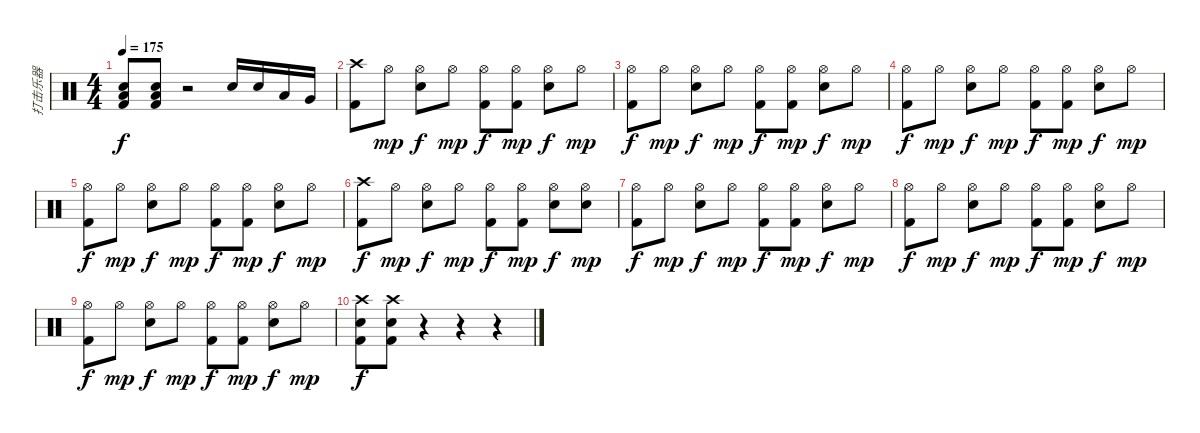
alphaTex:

\track ("打击乐器" "打击乐器") {instrument percussion}
\staff {score}
\articulation defaults
\ts (4 4)
\tempo 175
\clef neutral
\ks c
("Low Floor Tom (hit)" "Electric Snare (hit)" "Kick (hit) 2").8{dy f} ("Low Floor Tom (hit)" "Electric Snare (hit)" "Kick (hit) 2").8 r.2 "Electric Snare (hit)".16 "Electric Snare (hit)".16 "Low Tom (hit)".16 "Very Low Tom (hit)".16 |
("Crash high (hit)" "Kick (hit) 2").8 "Hi-Hat (open)".8{dy mp} ("Hi-Hat (open)" "Electric Snare (hit)").8{dy f} "Hi-Hat (open)".8{dy mp} ("Hi-Hat (open)" "Kick (hit) 2").8{dy f} ("Hi-Hat (open)" "Kick (hit) 2").8{dy mp} ("Hi-Hat (open)" "Electric Snare (hit)").8{dy f} "Hi-Hat (open)".8{dy mp} |
("Hi-Hat (open)" "Kick (hit) 2").8{dy f} "Hi-Hat (open)".8{dy mp} ("Hi-Hat (open)" "Electric Snare (hit)").8{dy f} "Hi-Hat (open)".8{dy mp} ("Hi-Hat (open)" "Kick (hit) 2").8{dy f} ("Hi-Hat (open)" "Kick (hit) 2").8{dy mp} ("Hi-Hat (open)" "Electric Snare (hit)").8{dy f} "Hi-Hat (open)".8{dy mp} |
("Hi-Hat (open)" "Kick (hit) 2").8{dy f} "Hi-Hat (open)".8{dy mp} ("Hi-Hat (open)" "Electric Snare (hit)").8{dy f} "Hi-Hat (open)".8{dy mp} ("Hi-Hat (open)" "Kick (hit) 2").8{dy f} ("Hi-Hat (open)" "Kick (hit) 2").8{dy mp} ("Hi-Hat (open)" "Electric Snare (hit)").8{dy f} "Hi-Hat (open)".8{dy mp} |
("Hi-Hat (open)" "Kick (hit) 2").8{dy f} "Hi-Hat (open)".8{dy mp} ("Hi-Hat (open)" "Electric Snare (hit)").8{dy f} "Hi-Hat (open)".8{dy mp} ("Hi-Hat (open)" "Kick (hit) 2").8{dy f} ("Hi-Hat (open)" "Kick (hit) 2").8{dy mp} ("Hi-Hat (open)" "Electric Snare (hit)").8{dy f} "Hi-Hat (open)".8{dy mp} |
("Crash high (hit)" "Kick (hit) 2").8{dy f} "Hi-Hat (open)".8{dy mp} ("Hi-Hat (open)" "Electric Snare (hit)").8{dy f} "Hi-Hat (open)".8{dy mp} ("Hi-Hat (open)" "Kick (hit) 2").8{dy f} ("Hi-Hat (open)" "Kick (hit) 2").8{dy mp} ("Hi-Hat (open)" "Electric Snare (hit)").8{dy f} ("Hi-Hat (open)" "Electric Snare (hit)").8{dy mp} |
("Hi-Hat (open)" "Kick (hit) 2").8{dy f} "Hi-Hat (open)".8{dy mp} ("Hi-Hat (open)" "Electric Snare (hit)").8{dy f} "Hi-Hat (open)".8{dy mp} ("Hi-Hat (open)" "Kick (hit) 2").8{dy f} ("Hi-Hat (open)" "Kick (hit) 2").8{dy mp} ("Hi-Hat (open)" "Electric Snare (hit)").8{dy f} "Hi-Hat (open)".8{dy mp} |
("Hi-Hat (open)" "Kick (hit) 2").8{dy f} "Hi-Hat (open)".8{dy mp} ("Hi-Hat (open)" "Electric Snare (hit)").8{dy f} "Hi-Hat (open)".8{dy mp} ("Hi-Hat (open)" "Kick (hit) 2").8{dy f} ("Hi-Hat (open)" "Kick (hit) 2").8{dy mp} ("Hi-Hat (open)" "Electric Snare (hit)").8{dy f} "Hi-Hat (open)".8{dy mp} |
("Hi-Hat (open)" "Kick (hit) 2").8{dy f} "Hi-Hat (open)".8{dy mp} ("Hi-Hat (open)" "Electric Snare (hit)").8{dy f} "Hi-Hat (open)".8{dy mp} ("Hi-Hat (open)" "Kick (hit) 2").8{dy f} ("Hi-Hat (open)" "Kick (hit) 2").8{dy mp} ("Hi-Hat (open)" "Electric Snare (hit)").8{dy f} "Hi-Hat (open)".8{dy mp} |
("Crash high (hit)" "Electric Snare (hit)" "Kick (hit) 2").8{dy f} ("Crash high (hit)" "Electric Snare (hit)" "Kick (hit) 2").8 r.4 r.4 r.4
